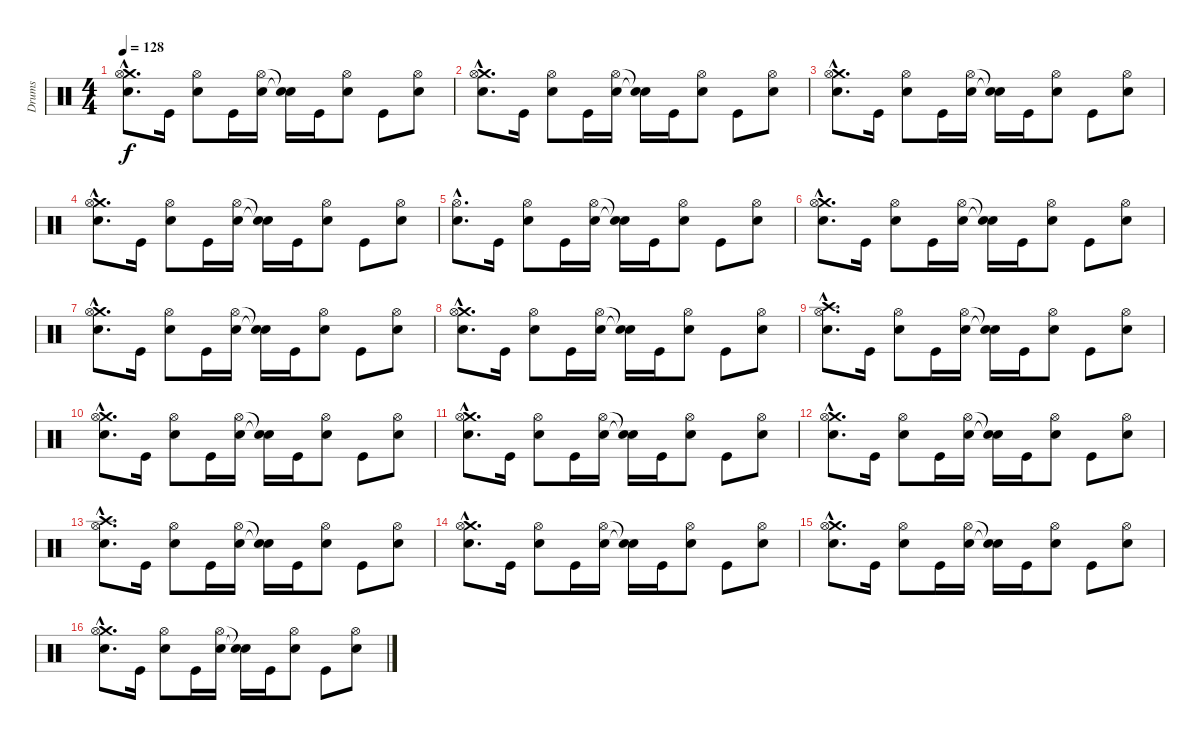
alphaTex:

\track ("Drums" "Drums") {instrument percussion}
\staff {score}
\articulation defaults
\ts (4 4)
\tempo 128
\clef neutral
\ks c
("Crash medium (hit)"{hac} "Hi-Hat (open)"{hac} "Snare (hit) 2"{hac}).8{d dy f} "Kick (hit)".16 ("Hi-Hat (open)" "Snare (hit) 2").8 "Kick (hit)".16 ("Hi-Hat (open)" "Snare (hit) 2").16 ("Snare (hit)"{t} "Snare (hit)"{t}).16 "Kick (hit)".16 ("Hi-Hat (open)" "Snare (hit) 2").8 "Kick (hit)".8 ("Hi-Hat (open)" "Snare (hit) 2").8 |
("Crash medium (hit)"{hac} "Hi-Hat (open)"{hac} "Snare (hit) 2"{hac}).8{d} "Kick (hit)".16 ("Hi-Hat (open)" "Snare (hit) 2").8 "Kick (hit)".16 ("Hi-Hat (open)" "Snare (hit) 2").16 ("Snare (hit)"{t} "Snare (hit)"{t}).16 "Kick (hit)".16 ("Hi-Hat (open)" "Snare (hit) 2").8 "Kick (hit)".8 ("Hi-Hat (open)" "Snare (hit) 2").8 |
("Crash medium (hit)"{hac} "Hi-Hat (open)"{hac} "Snare (hit) 2"{hac}).8{d} "Kick (hit)".16 ("Hi-Hat (open)" "Snare (hit) 2").8 "Kick (hit)".16 ("Hi-Hat (open)" "Snare (hit) 2").16 ("Snare (hit)"{t} "Snare (hit)"{t}).16 "Kick (hit)".16 ("Hi-Hat (open)" "Snare (hit) 2").8 "Kick (hit)".8 ("Hi-Hat (open)" "Snare (hit) 2").8 |
("Crash medium (hit)"{hac} "Hi-Hat (open)"{hac} "Snare (hit) 2"{hac}).8{d} "Kick (hit)".16 ("Hi-Hat (open)" "Snare (hit) 2").8 "Kick (hit)".16 ("Hi-Hat (open)" "Snare (hit) 2").16 ("Snare (hit)"{t} "Snare (hit)"{t}).16 "Kick (hit)".16 ("Hi-Hat (open)" "Snare (hit) 2").8 "Kick (hit)".8 ("Hi-Hat (open)" "Snare (hit) 2").8 |
("Hi-Hat (open)"{hac} "Snare (hit) 2"{hac}).8{d} "Kick (hit)".16 ("Hi-Hat (open)" "Snare (hit) 2").8 "Kick (hit)".16 ("Hi-Hat (open)" "Snare (hit) 2").16 ("Snare (hit)"{t} "Snare (hit)"{t}).16 "Kick (hit)".16 ("Hi-Hat (open)" "Snare (hit) 2").8 "Kick (hit)".8 ("Hi-Hat (open)" "Snare (hit) 2").8 |
("Crash medium (hit)"{hac} "Hi-Hat (open)"{hac} "Snare (hit) 2"{hac}).8{d} "Kick (hit)".16 ("Hi-Hat (open)" "Snare (hit) 2").8 "Kick (hit)".16 ("Hi-Hat (open)" "Snare (hit) 2").16 ("Snare (hit)"{t} "Snare (hit)"{t}).16 "Kick (hit)".16 ("Hi-Hat (open)" "Snare (hit) 2").8 "Kick (hit)".8 ("Hi-Hat (open)" "Snare (hit) 2").8 |
("Crash medium (hit)"{hac} "Hi-Hat (open)"{hac} "Snare (hit) 2"{hac}).8{d} "Kick (hit)".16 ("Hi-Hat (open)" "Snare (hit) 2").8 "Kick (hit)".16 ("Hi-Hat (open)" "Snare (hit) 2").16 ("Snare (hit)"{t} "Snare (hit)"{t}).16 "Kick (hit)".16 ("Hi-Hat (open)" "Snare (hit) 2").8 "Kick (hit)".8 ("Hi-Hat (open)" "Snare (hit) 2").8 |
("Crash medium (hit)"{hac} "Hi-Hat (open)"{hac} "Snare (hit) 2"{hac}).8{d} "Kick (hit)".16 ("Hi-Hat (open)" "Snare (hit) 2").8 "Kick (hit)".16 ("Hi-Hat (open)" "Snare (hit) 2").16 ("Snare (hit)"{t} "Snare (hit)"{t}).16 "Kick (hit)".16 ("Hi-Hat (open)" "Snare (hit) 2").8 "Kick (hit)".8 ("Hi-Hat (open)" "Snare (hit) 2").8 |
("Crash high (hit)"{hac} "Hi-Hat (open)"{hac} "Snare (hit) 2"{hac}).8{d} "Kick (hit)".16 ("Hi-Hat (open)" "Snare (hit) 2").8 "Kick (hit)".16 ("Hi-Hat (open)" "Snare (hit) 2").16 ("Snare (hit)"{t} "Snare (hit)"{t}).16 "Kick (hit)".16 ("Hi-Hat (open)" "Snare (hit) 2").8 "Kick (hit)".8 ("Hi-Hat (open)" "Snare (hit) 2").8 |
("Crash medium (hit)"{hac} "Hi-Hat (open)"{hac} "Snare (hit) 2"{hac}).8{d} "Kick (hit)".16 ("Hi-Hat (open)" "Snare (hit) 2").8 "Kick (hit)".16 ("Hi-Hat (open)" "Snare (hit) 2").16 ("Snare (hit)"{t} "Snare (hit)"{t}).16 "Kick (hit)".16 ("Hi-Hat (open)" "Snare (hit) 2").8 "Kick (hit)".8 ("Hi-Hat (open)" "Snare (hit) 2").8 |
("Crash medium (hit)"{hac} "Hi-Hat (open)"{hac} "Snare (hit) 2"{hac}).8{d} "Kick (hit)".16 ("Hi-Hat (open)" "Snare (hit) 2").8 "Kick (hit)".16 ("Hi-Hat (open)" "Snare (hit) 2").16 ("Snare (hit)"{t} "Snare (hit)"{t}).16 "Kick (hit)".16 ("Hi-Hat (open)" "Snare (hit) 2").8 "Kick (hit)".8 ("Hi-Hat (open)" "Snare (hit) 2").8 |
("Crash medium (hit)"{hac} "Hi-Hat (open)"{hac} "Snare (hit) 2"{hac}).8{d} "Kick (hit)".16 ("Hi-Hat (open)" "Snare (hit) 2").8 "Kick (hit)".16 ("Hi-Hat (open)" "Snare (hit) 2").16 ("Snare (hit)"{t} "Snare (hit)"{t}).16 "Kick (hit)".16 ("Hi-Hat (open)" "Snare (hit) 2").8 "Kick (hit)".8 ("Hi-Hat (open)" "Snare (hit) 2").8 |
("Hi-Hat (open)"{hac} "Snare (hit) 2"{hac} "Crash high (hit)"{hac}).8{d} "Kick (hit)".16 ("Hi-Hat (open)" "Snare (hit) 2").8 "Kick (hit)".16 ("Hi-Hat (open)" "Snare (hit) 2").16 ("Snare (hit)"{t} "Snare (hit)"{t}).16 "Kick (hit)".16 ("Hi-Hat (open)" "Snare (hit) 2").8 "Kick (hit)".8 ("Hi-Hat (open)" "Snare (hit) 2").8 |
("Crash medium (hit)"{hac} "Hi-Hat (open)"{hac} "Snare (hit) 2"{hac}).8{d} "Kick (hit)".16 ("Hi-Hat (open)" "Snare (hit) 2").8 "Kick (hit)".16 ("Hi-Hat (open)" "Snare (hit) 2").16 ("Snare (hit)"{t} "Snare (hit)"{t}).16 "Kick (hit)".16 ("Hi-Hat (open)" "Snare (hit) 2").8 "Kick (hit)".8 ("Hi-Hat (open)" "Snare (hit) 2").8 |
("Crash medium (hit)"{hac} "Hi-Hat (open)"{hac} "Snare (hit) 2"{hac}).8{d} "Kick (hit)".16 ("Hi-Hat (open)" "Snare (hit) 2").8 "Kick (hit)".16 ("Hi-Hat (open)" "Snare (hit) 2").16 ("Snare (hit)"{t} "Snare (hit)"{t}).16 "Kick (hit)".16 ("Hi-Hat (open)" "Snare (hit) 2").8 "Kick (hit)".8 ("Hi-Hat (open)" "Snare (hit) 2").8 |
("Crash medium (hit)"{hac} "Hi-Hat (open)"{hac} "Snare (hit) 2"{hac}).8{d} "Kick (hit)".16 ("Hi-Hat (open)" "Snare (hit) 2").8 "Kick (hit)".16 ("Hi-Hat (open)" "Snare (hit) 2").16 ("Snare (hit)"{t} "Snare (hit)"{t}).16 "Kick (hit)".16 ("Hi-Hat (open)" "Snare (hit) 2").8 "Kick (hit)".8 ("Hi-Hat (open)" "Snare (hit) 2").8
